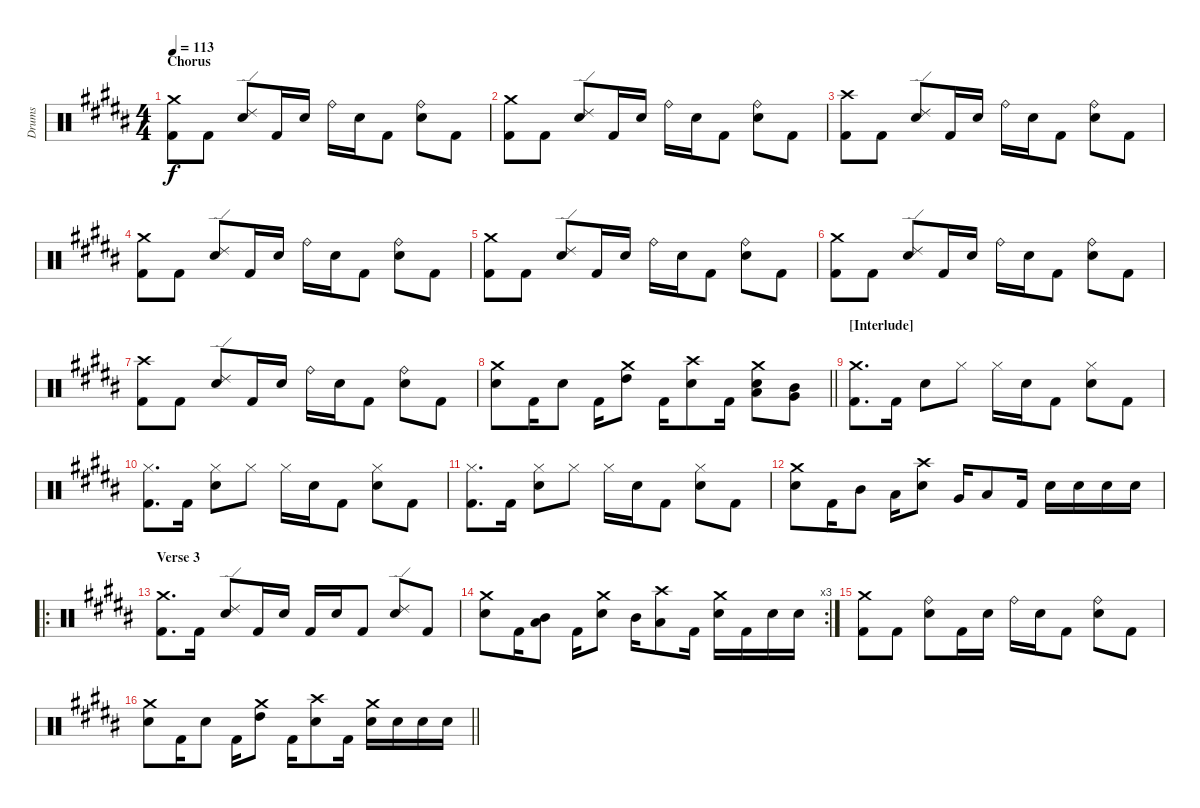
\track ("Drums" "Drums") {instrument percussion}
\staff {score}
\articulation defaults
\ts (4 4)
\section ("" "Chorus")
\tempo 113
\clef neutral
\ks b
("Kick (hit) 2" "Crash medium (hit)").8{dy f} "Kick (hit) 2".8 ("Electric Snare (hit)" "Ride (edge) 2").8 "Kick (hit) 2".16 "Electric Snare (hit)".16 "Ride (bell)".16 "Electric Snare (hit)".16 "Kick (hit) 2".8 ("Electric Snare (hit)" "Ride (bell)").8 "Kick (hit) 2".8 |
("Kick (hit) 2" "Crash medium (hit)").8 "Kick (hit) 2".8 ("Electric Snare (hit)" "Ride (edge) 2").8 "Kick (hit) 2".16 "Electric Snare (hit)".16 "Ride (bell)".16 "Electric Snare (hit)".16 "Kick (hit) 2".8 ("Electric Snare (hit)" "Ride (bell)").8 "Kick (hit) 2".8 |
("Kick (hit) 2" "Crash high (hit)").8 "Kick (hit) 2".8 ("Electric Snare (hit)" "Ride (edge) 2").8 "Kick (hit) 2".16 "Electric Snare (hit)".16 "Ride (bell)".16 "Electric Snare (hit)".16 "Kick (hit) 2".8 ("Electric Snare (hit)" "Ride (bell)").8 "Kick (hit) 2".8 |
("Kick (hit) 2" "Crash medium (hit)").8 "Kick (hit) 2".8 ("Electric Snare (hit)" "Ride (edge) 2").8 "Kick (hit) 2".16 "Electric Snare (hit)".16 "Ride (bell)".16 "Electric Snare (hit)".16 "Kick (hit) 2".8 ("Electric Snare (hit)" "Ride (bell)").8 "Kick (hit) 2".8 |
("Kick (hit) 2" "Crash medium (hit)").8 "Kick (hit) 2".8 ("Electric Snare (hit)" "Ride (edge) 2").8 "Kick (hit) 2".16 "Electric Snare (hit)".16 "Ride (bell)".16 "Electric Snare (hit)".16 "Kick (hit) 2".8 ("Electric Snare (hit)" "Ride (bell)").8 "Kick (hit) 2".8 |
("Kick (hit) 2" "Crash medium (hit)").8 "Kick (hit) 2".8 ("Electric Snare (hit)" "Ride (edge) 2").8 "Kick (hit) 2".16 "Electric Snare (hit)".16 "Ride (bell)".16 "Electric Snare (hit)".16 "Kick (hit) 2".8 ("Electric Snare (hit)" "Ride (bell)").8 "Kick (hit) 2".8 |
("Kick (hit) 2" "Crash high (hit)").8 "Kick (hit) 2".8 ("Electric Snare (hit)" "Ride (edge) 2").8 "Kick (hit) 2".16 "Electric Snare (hit)".16 "Ride (bell)".16 "Electric Snare (hit)".16 "Kick (hit) 2".8 ("Electric Snare (hit)" "Ride (bell)").8 "Kick (hit) 2".8 |
\barLineRight lightlight
("Electric Snare (hit)" "Crash medium (hit)").8 "Kick (hit) 2".16 "Electric Snare (hit)".8 "Kick (hit) 2".16 ("High Tom (hit)" "Crash medium (hit)").8 "Kick (hit) 2".16 ("Electric Snare (hit)" "Crash high (hit)").8 "Kick (hit) 2".16 ("Electric Snare (hit)" "Low Tom (hit)" "Crash medium (hit)").8 ("Very Low Tom (hit)" "Mid Tom (hit)").8 |
\section ("" "[Interlude]")
("Kick (hit) 2" "Crash medium (hit)").8{d} "Kick (hit) 2".16 "Electric Snare (hit)".8 "Hi-Hat (closed)".8 "Hi-Hat (closed)".16 "Electric Snare (hit)".16 "Kick (hit) 2".8 ("Electric Snare (hit)" "Hi-Hat (closed)").8 "Kick (hit) 2".8 |
("Kick (hit) 2" "Hi-Hat (closed)").8{d} "Kick (hit) 2".16 ("Electric Snare (hit)" "Hi-Hat (closed)").8 "Hi-Hat (closed)".8 "Hi-Hat (closed)".16 "Electric Snare (hit)".16 "Kick (hit) 2".8 ("Electric Snare (hit)" "Hi-Hat (closed)").8 "Kick (hit) 2".8 |
("Kick (hit) 2" "Hi-Hat (closed)").8{d} "Kick (hit) 2".16 ("Electric Snare (hit)" "Hi-Hat (closed)").8 "Hi-Hat (closed)".8 "Hi-Hat (closed)".16 "Electric Snare (hit)".16 "Kick (hit) 2".8 ("Electric Snare (hit)" "Hi-Hat (closed)").8 "Kick (hit) 2".8 |
("Electric Snare (hit)" "Crash medium (hit)").8 "Kick (hit) 2".16 "Mid Tom (hit)".8 "Low Tom (hit)".16 ("Electric Snare (hit)" "Crash high (hit)").8 "Very Low Tom (hit)".16 "Low Floor Tom (hit)".8 "Kick (hit) 2".16 "Electric Snare (hit)".16 "Electric Snare (hit)".16 "Electric Snare (hit)".16 "Electric Snare (hit)".16 |
\ro
\section ("" "Verse 3")
("Kick (hit) 2" "Crash medium (hit)").8{d} "Kick (hit) 2".16 ("Electric Snare (hit)" "Ride (edge) 2").8 "Kick (hit) 2".16 "Electric Snare (hit)".16 "Kick (hit) 2".16 "Electric Snare (hit)".16 "Kick (hit) 2".8 ("Electric Snare (hit)" "Ride (edge) 2").8 "Kick (hit) 2".8 |
\rc 3
("Electric Snare (hit)" "Crash medium (hit)").8 "Kick (hit) 2".16 ("Low Tom (hit)" "Mid Tom (hit)").8 "Kick (hit) 2".16 ("Electric Snare (hit)" "Crash medium (hit)").8 "Mid Tom (hit)".16 ("Low Tom (hit)" "Crash high (hit)").8 "Kick (hit) 2".16 ("Electric Snare (hit)" "Crash medium (hit)").16 "Kick (hit) 2".16 "Electric Snare (hit)".16 "Electric Snare (hit)".16 |
("Kick (hit) 2" "Crash medium (hit)").8 "Kick (hit) 2".8 ("Electric Snare (hit)" "Ride (bell)").8 "Kick (hit) 2".16 "Electric Snare (hit)".16 "Ride (bell)".16 "Electric Snare (hit)".16 "Kick (hit) 2".8 ("Electric Snare (hit)" "Ride (bell)").8 "Kick (hit) 2".8 |
\barLineRight lightlight
("Electric Snare (hit)" "Crash medium (hit)").8 "Kick (hit) 2".16 "Electric Snare (hit)".8 "Kick (hit) 2".16 ("High Tom (hit)" "Crash medium (hit)").8 "Kick (hit) 2".16 ("Electric Snare (hit)" "Crash high (hit)").8 "Kick (hit) 2".16 ("Electric Snare (hit)" "Crash medium (hit)").16 "Electric Snare (hit)".16 "Electric Snare (hit)".16 "Electric Snare (hit)".16
